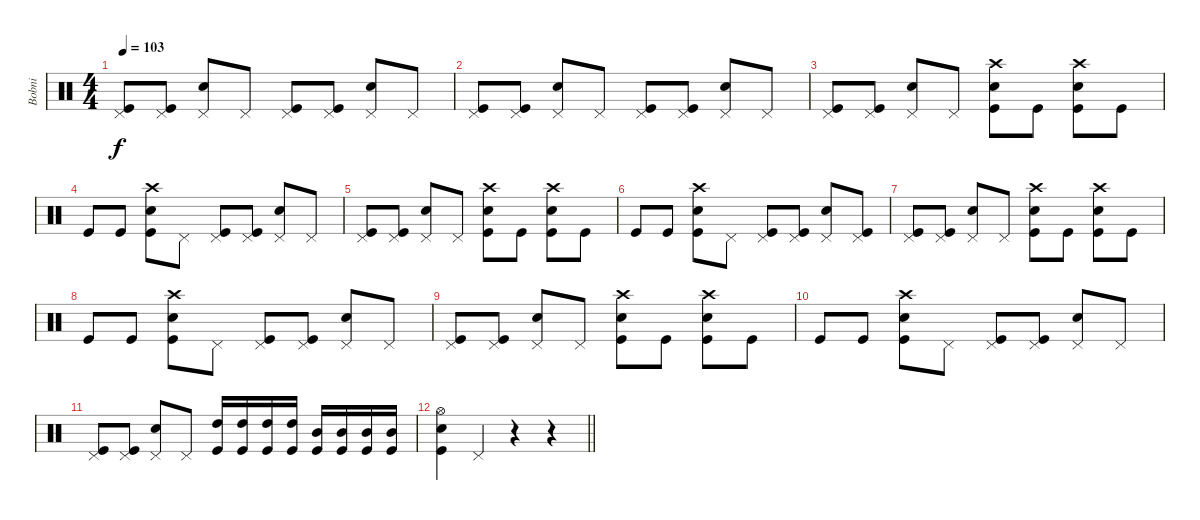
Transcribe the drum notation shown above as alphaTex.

\track ("Bobni" "Bobni") {instrument percussion}
\staff {score}
\articulation defaults
\ts (4 4)
\tempo 103
\clef neutral
\ks aminor
("Pedal Hi-Hat (hit)" "Kick (hit)").8{dy f} ("Pedal Hi-Hat (hit)" "Kick (hit)").8 ("Pedal Hi-Hat (hit)" "Snare (hit) 2").8 "Pedal Hi-Hat (hit)".8 ("Pedal Hi-Hat (hit)" "Kick (hit)").8 ("Pedal Hi-Hat (hit)" "Kick (hit)").8 ("Pedal Hi-Hat (hit)" "Snare (hit) 2").8 "Pedal Hi-Hat (hit)".8 |
("Pedal Hi-Hat (hit)" "Kick (hit)").8 ("Pedal Hi-Hat (hit)" "Kick (hit)").8 ("Pedal Hi-Hat (hit)" "Snare (hit) 2").8 "Pedal Hi-Hat (hit)".8 ("Pedal Hi-Hat (hit)" "Kick (hit)").8 ("Pedal Hi-Hat (hit)" "Kick (hit)").8 ("Pedal Hi-Hat (hit)" "Snare (hit) 2").8 "Pedal Hi-Hat (hit)".8 |
("Pedal Hi-Hat (hit)" "Kick (hit)").8 ("Pedal Hi-Hat (hit)" "Kick (hit)").8 ("Pedal Hi-Hat (hit)" "Snare (hit) 2").8 "Pedal Hi-Hat (hit)".8 ("Crash high (hit)" "Snare (hit) 2" "Kick (hit)").8 "Kick (hit)".8 ("Crash high (hit)" "Snare (hit) 2" "Kick (hit)").8 "Kick (hit)".8 |
"Kick (hit)".8 "Kick (hit)".8 ("Crash high (hit)" "Snare (hit) 2" "Kick (hit)").8 "Pedal Hi-Hat (hit)".8 ("Pedal Hi-Hat (hit)" "Kick (hit)").8 ("Pedal Hi-Hat (hit)" "Kick (hit)").8 ("Pedal Hi-Hat (hit)" "Snare (hit) 2").8 "Pedal Hi-Hat (hit)".8 |
("Pedal Hi-Hat (hit)" "Kick (hit)").8 ("Pedal Hi-Hat (hit)" "Kick (hit)").8 ("Pedal Hi-Hat (hit)" "Snare (hit) 2").8 "Pedal Hi-Hat (hit)".8 ("Crash high (hit)" "Snare (hit) 2" "Kick (hit)").8 "Kick (hit)".8 ("Crash high (hit)" "Snare (hit) 2" "Kick (hit)").8 "Kick (hit)".8 |
"Kick (hit)".8 "Kick (hit)".8 ("Crash high (hit)" "Snare (hit) 2" "Kick (hit)").8 "Pedal Hi-Hat (hit)".8 ("Pedal Hi-Hat (hit)" "Kick (hit)").8 ("Pedal Hi-Hat (hit)" "Kick (hit)").8 ("Pedal Hi-Hat (hit)" "Snare (hit) 2").8 ("Pedal Hi-Hat (hit)" "Kick (hit)").8 |
("Pedal Hi-Hat (hit)" "Kick (hit)").8 ("Pedal Hi-Hat (hit)" "Kick (hit)").8 ("Pedal Hi-Hat (hit)" "Snare (hit) 2").8 "Pedal Hi-Hat (hit)".8 ("Crash high (hit)" "Snare (hit) 2" "Kick (hit)").8 "Kick (hit)".8 ("Crash high (hit)" "Snare (hit) 2" "Kick (hit)").8 "Kick (hit)".8 |
"Kick (hit)".8 "Kick (hit)".8 ("Crash high (hit)" "Snare (hit) 2" "Kick (hit)").8 "Pedal Hi-Hat (hit)".8 ("Pedal Hi-Hat (hit)" "Kick (hit)").8 ("Pedal Hi-Hat (hit)" "Kick (hit)").8 ("Pedal Hi-Hat (hit)" "Snare (hit) 2").8 "Pedal Hi-Hat (hit)".8 |
("Pedal Hi-Hat (hit)" "Kick (hit)").8 ("Pedal Hi-Hat (hit)" "Kick (hit)").8 ("Pedal Hi-Hat (hit)" "Snare (hit) 2").8 "Pedal Hi-Hat (hit)".8 ("Crash high (hit)" "Snare (hit) 2" "Kick (hit)").8 "Kick (hit)".8 ("Crash high (hit)" "Snare (hit) 2" "Kick (hit)").8 "Kick (hit)".8 |
"Kick (hit)".8 "Kick (hit)".8 ("Crash high (hit)" "Snare (hit) 2" "Kick (hit)").8 "Pedal Hi-Hat (hit)".8 ("Pedal Hi-Hat (hit)" "Kick (hit)").8 ("Pedal Hi-Hat (hit)" "Kick (hit)").8 ("Pedal Hi-Hat (hit)" "Snare (hit) 2").8 "Pedal Hi-Hat (hit)".8 |
("Pedal Hi-Hat (hit)" "Kick (hit)").8 ("Pedal Hi-Hat (hit)" "Kick (hit)").8 ("Pedal Hi-Hat (hit)" "Snare (hit) 2").8 "Pedal Hi-Hat (hit)".8 ("High Tom (hit)" "Kick (hit)").16 ("High Tom (hit)" "Kick (hit)").16 ("High Tom (hit)" "Kick (hit)").16 ("High Tom (hit)" "Kick (hit)").16 ("Mid Tom (hit)" "Kick (hit)").16 ("Mid Tom (hit)" "Kick (hit)").16 ("Mid Tom (hit)" "Kick (hit)").16 ("Mid Tom (hit)" "Kick (hit)").16 |
\barLineRight lightlight
("Hi-Hat (open)" "Snare (hit) 2" "Kick (hit)").4 "Pedal Hi-Hat (hit)".4 r.4 r.4
